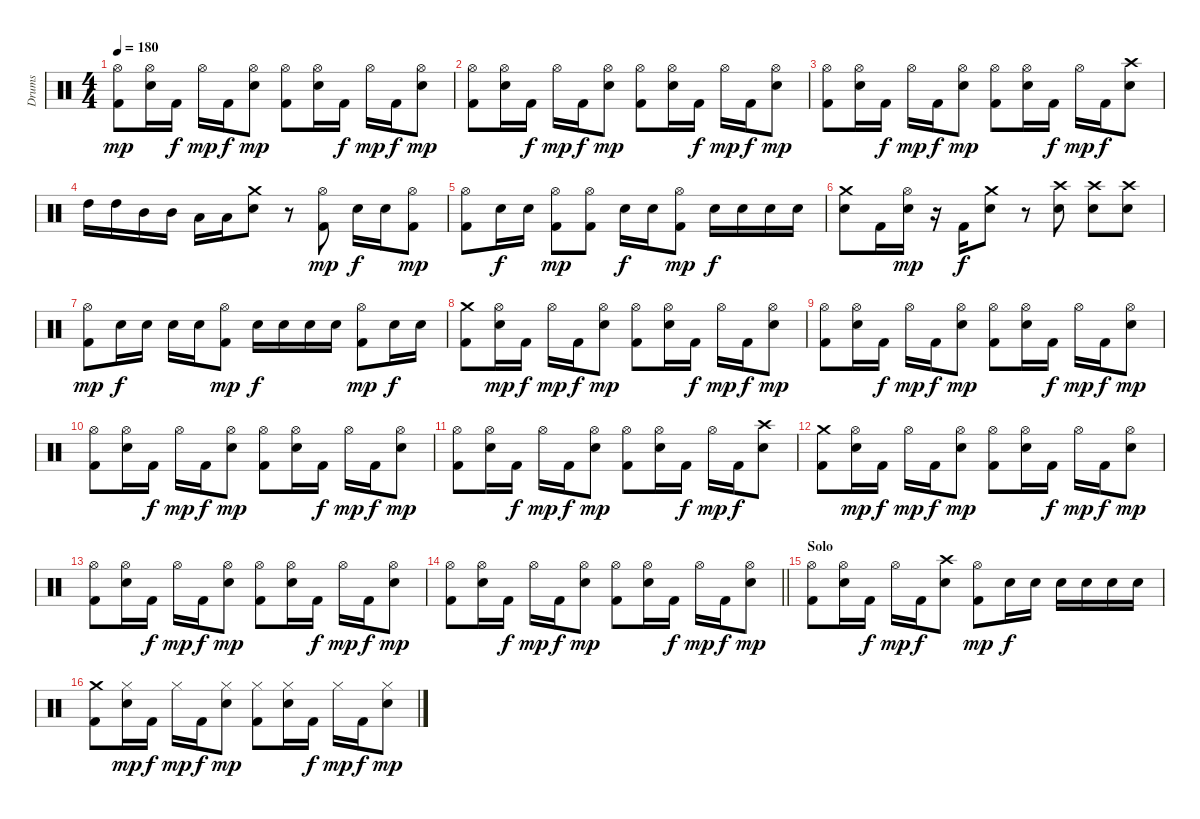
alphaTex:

\track ("Drums" "Drums") {instrument percussion}
\staff {score}
\articulation defaults
\ts (4 4)
\tempo 180
\clef neutral
\ks c
("Hi-Hat (open)" "Kick (hit) 2").8{dy mp} ("Hi-Hat (open)" "Snare (hit) 2").16 "Kick (hit) 2".16{dy f} "Hi-Hat (open)".16{dy mp} "Kick (hit) 2".16{dy f} ("Hi-Hat (open)" "Snare (hit) 2").8{dy mp} ("Hi-Hat (open)" "Kick (hit) 2").8 ("Hi-Hat (open)" "Snare (hit) 2").16 "Kick (hit) 2".16{dy f} "Hi-Hat (open)".16{dy mp} "Kick (hit) 2".16{dy f} ("Hi-Hat (open)" "Snare (hit) 2").8{dy mp} |
("Hi-Hat (open)" "Kick (hit) 2").8 ("Hi-Hat (open)" "Snare (hit) 2").16 "Kick (hit) 2".16{dy f} "Hi-Hat (open)".16{dy mp} "Kick (hit) 2".16{dy f} ("Hi-Hat (open)" "Snare (hit) 2").8{dy mp} ("Hi-Hat (open)" "Kick (hit) 2").8 ("Hi-Hat (open)" "Snare (hit) 2").16 "Kick (hit) 2".16{dy f} "Hi-Hat (open)".16{dy mp} "Kick (hit) 2".16{dy f} ("Hi-Hat (open)" "Snare (hit) 2").8{dy mp} |
("Hi-Hat (open)" "Kick (hit) 2").8 ("Hi-Hat (open)" "Snare (hit) 2").16 "Kick (hit) 2".16{dy f} "Hi-Hat (open)".16{dy mp} "Kick (hit) 2".16{dy f} ("Hi-Hat (open)" "Snare (hit) 2").8{dy mp} ("Hi-Hat (open)" "Kick (hit) 2").8 ("Hi-Hat (open)" "Snare (hit) 2").16 "Kick (hit) 2".16{dy f} "Hi-Hat (open)".16{dy mp} "Kick (hit) 2".16{dy f} ("Crash high (hit)" "Snare (hit) 2").8 |
"High Tom (hit)".16 "High Tom (hit)".16 "Mid Tom (hit)".16 "Mid Tom (hit)".16 "Low Tom (hit)".16 "Low Tom (hit)".16 ("Crash medium (hit)" "Snare (hit) 2").8 r.8 ("Hi-Hat (open)" "Kick (hit) 2").8{dy mp} "Snare (hit) 2".16{dy f} "Snare (hit) 2".16 ("Hi-Hat (open)" "Kick (hit) 2").8{dy mp} |
("Hi-Hat (open)" "Kick (hit) 2").8 "Snare (hit) 2".16{dy f} "Snare (hit) 2".16 ("Hi-Hat (open)" "Kick (hit) 2").8{dy mp} ("Hi-Hat (open)" "Kick (hit) 2").8 "Snare (hit) 2".16{dy f} "Snare (hit) 2".16 ("Hi-Hat (open)" "Kick (hit) 2").8{dy mp} "Snare (hit) 2".16{dy f} "Snare (hit) 2".16 "Snare (hit) 2".16 "Snare (hit) 2".16 |
("Crash medium (hit)" "Snare (hit) 2").8 "Kick (hit) 2".16 ("Hi-Hat (open)" "Snare (hit) 2").16{dy mp} r.16 "Kick (hit) 2".16{dy f} ("Crash medium (hit)" "Snare (hit) 2").8 r.8 ("Crash high (hit)" "Snare (hit) 2").8 ("Crash high (hit)" "Snare (hit) 2").8 ("Crash high (hit)" "Snare (hit) 2").8 |
("Hi-Hat (open)" "Kick (hit) 2").8{dy mp} "Snare (hit) 2".16{dy f} "Snare (hit) 2".16 "Snare (hit) 2".16 "Snare (hit) 2".16 ("Hi-Hat (open)" "Kick (hit) 2").8{dy mp} "Snare (hit) 2".16{dy f} "Snare (hit) 2".16 "Snare (hit) 2".16 "Snare (hit) 2".16 ("Hi-Hat (open)" "Kick (hit) 2").8{dy mp} "Snare (hit) 2".16{dy f} "Snare (hit) 2".16 |
("Crash medium (hit)" "Kick (hit) 2").8 ("Hi-Hat (open)" "Snare (hit) 2").16{dy mp} "Kick (hit) 2".16{dy f} "Hi-Hat (open)".16{dy mp} "Kick (hit) 2".16{dy f} ("Hi-Hat (open)" "Snare (hit) 2").8{dy mp} ("Hi-Hat (open)" "Kick (hit) 2").8 ("Hi-Hat (open)" "Snare (hit) 2").16 "Kick (hit) 2".16{dy f} "Hi-Hat (open)".16{dy mp} "Kick (hit) 2".16{dy f} ("Hi-Hat (open)" "Snare (hit) 2").8{dy mp} |
("Hi-Hat (open)" "Kick (hit) 2").8 ("Hi-Hat (open)" "Snare (hit) 2").16 "Kick (hit) 2".16{dy f} "Hi-Hat (open)".16{dy mp} "Kick (hit) 2".16{dy f} ("Hi-Hat (open)" "Snare (hit) 2").8{dy mp} ("Hi-Hat (open)" "Kick (hit) 2").8 ("Hi-Hat (open)" "Snare (hit) 2").16 "Kick (hit) 2".16{dy f} "Hi-Hat (open)".16{dy mp} "Kick (hit) 2".16{dy f} ("Hi-Hat (open)" "Snare (hit) 2").8{dy mp} |
("Hi-Hat (open)" "Kick (hit) 2").8 ("Hi-Hat (open)" "Snare (hit) 2").16 "Kick (hit) 2".16{dy f} "Hi-Hat (open)".16{dy mp} "Kick (hit) 2".16{dy f} ("Hi-Hat (open)" "Snare (hit) 2").8{dy mp} ("Hi-Hat (open)" "Kick (hit) 2").8 ("Hi-Hat (open)" "Snare (hit) 2").16 "Kick (hit) 2".16{dy f} "Hi-Hat (open)".16{dy mp} "Kick (hit) 2".16{dy f} ("Hi-Hat (open)" "Snare (hit) 2").8{dy mp} |
("Hi-Hat (open)" "Kick (hit) 2").8 ("Hi-Hat (open)" "Snare (hit) 2").16 "Kick (hit) 2".16{dy f} "Hi-Hat (open)".16{dy mp} "Kick (hit) 2".16{dy f} ("Hi-Hat (open)" "Snare (hit) 2").8{dy mp} ("Hi-Hat (open)" "Kick (hit) 2").8 ("Hi-Hat (open)" "Snare (hit) 2").16 "Kick (hit) 2".16{dy f} "Hi-Hat (open)".16{dy mp} "Kick (hit) 2".16{dy f} ("Crash high (hit)" "Snare (hit) 2").8 |
("Crash medium (hit)" "Kick (hit) 2").8 ("Hi-Hat (open)" "Snare (hit) 2").16{dy mp} "Kick (hit) 2".16{dy f} "Hi-Hat (open)".16{dy mp} "Kick (hit) 2".16{dy f} ("Hi-Hat (open)" "Snare (hit) 2").8{dy mp} ("Hi-Hat (open)" "Kick (hit) 2").8 ("Hi-Hat (open)" "Snare (hit) 2").16 "Kick (hit) 2".16{dy f} "Hi-Hat (open)".16{dy mp} "Kick (hit) 2".16{dy f} ("Hi-Hat (open)" "Snare (hit) 2").8{dy mp} |
("Hi-Hat (open)" "Kick (hit) 2").8 ("Hi-Hat (open)" "Snare (hit) 2").16 "Kick (hit) 2".16{dy f} "Hi-Hat (open)".16{dy mp} "Kick (hit) 2".16{dy f} ("Hi-Hat (open)" "Snare (hit) 2").8{dy mp} ("Hi-Hat (open)" "Kick (hit) 2").8 ("Hi-Hat (open)" "Snare (hit) 2").16 "Kick (hit) 2".16{dy f} "Hi-Hat (open)".16{dy mp} "Kick (hit) 2".16{dy f} ("Hi-Hat (open)" "Snare (hit) 2").8{dy mp} |
\barLineRight lightlight
("Hi-Hat (open)" "Kick (hit) 2").8 ("Hi-Hat (open)" "Snare (hit) 2").16 "Kick (hit) 2".16{dy f} "Hi-Hat (open)".16{dy mp} "Kick (hit) 2".16{dy f} ("Hi-Hat (open)" "Snare (hit) 2").8{dy mp} ("Hi-Hat (open)" "Kick (hit) 2").8 ("Hi-Hat (open)" "Snare (hit) 2").16 "Kick (hit) 2".16{dy f} "Hi-Hat (open)".16{dy mp} "Kick (hit) 2".16{dy f} ("Hi-Hat (open)" "Snare (hit) 2").8{dy mp} |
\section ("" "Solo")
("Hi-Hat (open)" "Kick (hit) 2").8 ("Hi-Hat (open)" "Snare (hit) 2").16 "Kick (hit) 2".16{dy f} "Hi-Hat (open)".16{dy mp} "Kick (hit) 2".16{dy f} ("Crash high (hit)" "Snare (hit) 2").8 ("Hi-Hat (open)" "Kick (hit) 2").8{dy mp} "Snare (hit) 2".16{dy f} "Snare (hit) 2".16 "Snare (hit) 2".16 "Snare (hit) 2".16 "Snare (hit) 2".16 "Snare (hit) 2".16 |
("Crash medium (hit)" "Kick (hit) 2").8 ("Hi-Hat (closed)" "Snare (hit) 2").16{dy mp} "Kick (hit) 2".16{dy f} "Hi-Hat (closed)".16{dy mp} "Kick (hit) 2".16{dy f} ("Hi-Hat (closed)" "Snare (hit) 2").8{dy mp} ("Hi-Hat (closed)" "Kick (hit) 2").8 ("Hi-Hat (closed)" "Snare (hit) 2").16 "Kick (hit) 2".16{dy f} "Hi-Hat (closed)".16{dy mp} "Kick (hit) 2".16{dy f} ("Hi-Hat (closed)" "Snare (hit) 2").8{dy mp}
